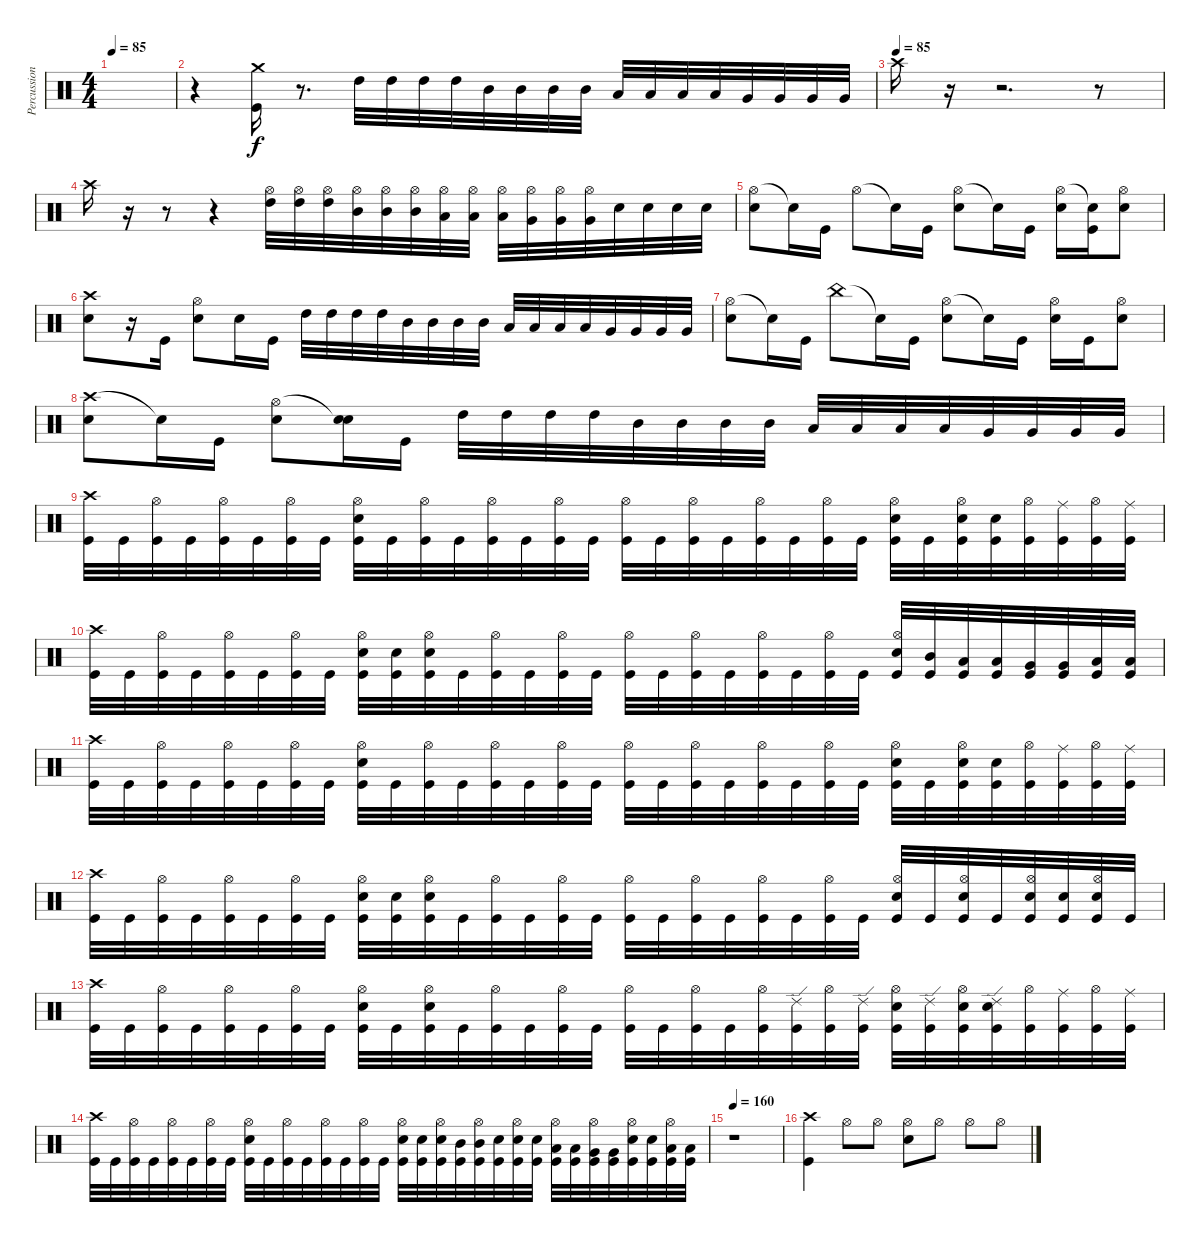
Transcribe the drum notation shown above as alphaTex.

\track ("Percussion" "Percussion") {instrument percussion}
\staff {score}
\articulation defaults
\ts (4 4)
\tempo 85
\clef neutral
\ks c
|
r.4 ("Crash medium (hit)" "Kick (hit)").16 r.8{d} "High Tom (hit)".32 "High Tom (hit)".32 "High Tom (hit)".32 "High Tom (hit)".32 "Mid Tom (hit)".32 "Mid Tom (hit)".32 "Mid Tom (hit)".32 "Mid Tom (hit)".32 "Low Tom (hit)".32 "Low Tom (hit)".32 "Low Tom (hit)".32 "Low Tom (hit)".32 "Very Low Tom (hit)".32 "Very Low Tom (hit)".32 "Very Low Tom (hit)".32 "Very Low Tom (hit)".32 |
\tempo (85)
"Crash high (hit)".16 r.16 r.2{d} r.8 |
"Crash high (hit)".16 r.16 r.8 r.4 ("Hi-Hat (open)" "High Tom (hit)").32 ("Hi-Hat (open)" "High Tom (hit)").32 ("Hi-Hat (open)" "High Tom (hit)").32 ("Hi-Hat (open)" "Mid Tom (hit)").32 ("Hi-Hat (open)" "Mid Tom (hit)").32 ("Hi-Hat (open)" "Mid Tom (hit)").32 ("Hi-Hat (open)" "Low Tom (hit)").32 ("Hi-Hat (open)" "Low Tom (hit)").32 ("Hi-Hat (open)" "Low Tom (hit)").32 ("Hi-Hat (open)" "Very Low Tom (hit)").32 ("Hi-Hat (open)" "Very Low Tom (hit)").32 ("Hi-Hat (open)" "Very Low Tom (hit)").32 "Electric Snare (hit)".32 "Electric Snare (hit)".32 "Electric Snare (hit)".32 "Electric Snare (hit)".32 |
("Hi-Hat (open)" "Electric Snare (hit)").8 "Snare (hit)"{t}.16 "Kick (hit)".16 "Hi-Hat (open)".8 "Snare (hit)"{t}.16 "Kick (hit)".16 ("Hi-Hat (open)" "Electric Snare (hit)").8 "Snare (hit)"{t}.16 "Kick (hit)".16 ("Hi-Hat (open)" "Electric Snare (hit)").16 ("Snare (hit)"{t} "Kick (hit)").16 ("Hi-Hat (open)" "Electric Snare (hit)").8 |
("Crash high (hit)" "Electric Snare (hit)").8 r.16 "Kick (hit)".16 ("Hi-Hat (open)" "Electric Snare (hit)").8 "Electric Snare (hit)".16 "Kick (hit)".16 "High Tom (hit)".32 "High Tom (hit)".32 "High Tom (hit)".32 "High Tom (hit)".32 "Mid Tom (hit)".32 "Mid Tom (hit)".32 "Mid Tom (hit)".32 "Mid Tom (hit)".32 "Low Tom (hit)".32 "Low Tom (hit)".32 "Low Tom (hit)".32 "Low Tom (hit)".32 "Very Low Tom (hit)".32 "Very Low Tom (hit)".32 "Very Low Tom (hit)".32 "Very Low Tom (hit)".32 |
("Hi-Hat (open)" "Electric Snare (hit)").8 "Snare (hit)"{t}.16 "Kick (hit)".16 "China (hit)".8 "Snare (hit)"{t}.16 "Kick (hit)".16 ("Hi-Hat (open)" "Electric Snare (hit)").8 "Snare (hit)"{t}.16 "Kick (hit)".16 ("Hi-Hat (open)" "Electric Snare (hit)").16 "Kick (hit)".16 ("Hi-Hat (open)" "Electric Snare (hit)").8 |
("Crash high (hit)" "Electric Snare (hit)").8 "Snare (hit)"{t}.16 "Kick (hit)".16 ("Hi-Hat (open)" "Electric Snare (hit)").8 ("Snare (hit)"{t} "Electric Snare (hit)").16 "Kick (hit)".16 "High Tom (hit)".32 "High Tom (hit)".32 "High Tom (hit)".32 "High Tom (hit)".32 "Mid Tom (hit)".32 "Mid Tom (hit)".32 "Mid Tom (hit)".32 "Mid Tom (hit)".32 "Low Tom (hit)".32 "Low Tom (hit)".32 "Low Tom (hit)".32 "Low Tom (hit)".32 "Very Low Tom (hit)".32 "Very Low Tom (hit)".32 "Very Low Tom (hit)".32 "Very Low Tom (hit)".32 |
("Crash high (hit)" "Kick (hit)").32 "Kick (hit)".32 ("Hi-Hat (open)" "Kick (hit)").32 "Kick (hit)".32 ("Hi-Hat (open)" "Kick (hit)").32 "Kick (hit)".32 ("Hi-Hat (open)" "Kick (hit)").32 "Kick (hit)".32 ("Hi-Hat (open)" "Electric Snare (hit)" "Kick (hit)").32 "Kick (hit)".32 ("Hi-Hat (open)" "Kick (hit)").32 "Kick (hit)".32 ("Hi-Hat (open)" "Kick (hit)").32 "Kick (hit)".32 ("Hi-Hat (open)" "Kick (hit)").32 "Kick (hit)".32 ("Hi-Hat (open)" "Kick (hit)").32 "Kick (hit)".32 ("Hi-Hat (open)" "Kick (hit)").32 "Kick (hit)".32 ("Hi-Hat (open)" "Kick (hit)").32 "Kick (hit)".32 ("Hi-Hat (open)" "Kick (hit)").32 "Kick (hit)".32 ("Hi-Hat (open)" "Electric Snare (hit)" "Kick (hit)").32 "Kick (hit)".32 ("Hi-Hat (open)" "Electric Snare (hit)" "Kick (hit)").32 ("Electric Snare (hit)" "Kick (hit)").32 ("Hi-Hat (open)" "Kick (hit)").32 ("Ride (middle)" "Kick (hit)").32 ("Hi-Hat (open)" "Kick (hit)").32 ("Ride (middle)" "Kick (hit)").32 |
("Crash high (hit)" "Kick (hit)").32 "Kick (hit)".32 ("Hi-Hat (open)" "Kick (hit)").32 "Kick (hit)".32 ("Hi-Hat (open)" "Kick (hit)").32 "Kick (hit)".32 ("Hi-Hat (open)" "Kick (hit)").32 "Kick (hit)".32 ("Hi-Hat (open)" "Electric Snare (hit)" "Kick (hit)").32 ("Electric Snare (hit)" "Kick (hit)").32 ("Hi-Hat (open)" "Electric Snare (hit)" "Kick (hit)").32 "Kick (hit)".32 ("Hi-Hat (open)" "Kick (hit)").32 "Kick (hit)".32 ("Hi-Hat (open)" "Kick (hit)").32 "Kick (hit)".32 ("Hi-Hat (open)" "Kick (hit)").32 "Kick (hit)".32 ("Hi-Hat (open)" "Kick (hit)").32 "Kick (hit)".32 ("Hi-Hat (open)" "Kick (hit)").32 "Kick (hit)".32 ("Hi-Hat (open)" "Kick (hit)").32 "Kick (hit)".32 ("Hi-Hat (open)" "Electric Snare (hit)" "Kick (hit)").32 ("Mid Tom (hit)" "Kick (hit)").32 ("Low Tom (hit)" "Kick (hit)").32 ("Low Tom (hit)" "Kick (hit)").32 ("Very Low Tom (hit)" "Kick (hit)").32 ("Very Low Tom (hit)" "Kick (hit)").32 ("Low Floor Tom (hit)" "Kick (hit)").32 ("Low Floor Tom (hit)" "Kick (hit)").32 |
("Crash high (hit)" "Kick (hit)").32 "Kick (hit)".32 ("Hi-Hat (open)" "Kick (hit)").32 "Kick (hit)".32 ("Hi-Hat (open)" "Kick (hit)").32 "Kick (hit)".32 ("Hi-Hat (open)" "Kick (hit)").32 "Kick (hit)".32 ("Hi-Hat (open)" "Electric Snare (hit)" "Kick (hit)").32 "Kick (hit)".32 ("Hi-Hat (open)" "Kick (hit)").32 "Kick (hit)".32 ("Hi-Hat (open)" "Kick (hit)").32 "Kick (hit)".32 ("Hi-Hat (open)" "Kick (hit)").32 "Kick (hit)".32 ("Hi-Hat (open)" "Kick (hit)").32 "Kick (hit)".32 ("Hi-Hat (open)" "Kick (hit)").32 "Kick (hit)".32 ("Hi-Hat (open)" "Kick (hit)").32 "Kick (hit)".32 ("Hi-Hat (open)" "Kick (hit)").32 "Kick (hit)".32 ("Hi-Hat (open)" "Electric Snare (hit)" "Kick (hit)").32 "Kick (hit)".32 ("Hi-Hat (open)" "Electric Snare (hit)" "Kick (hit)").32 ("Electric Snare (hit)" "Kick (hit)").32 ("Hi-Hat (open)" "Kick (hit)").32 ("Ride (middle)" "Kick (hit)").32 ("Hi-Hat (open)" "Kick (hit)").32 ("Ride (middle)" "Kick (hit)").32 |
("Crash high (hit)" "Kick (hit)").32 "Kick (hit)".32 ("Hi-Hat (open)" "Kick (hit)").32 "Kick (hit)".32 ("Hi-Hat (open)" "Kick (hit)").32 "Kick (hit)".32 ("Hi-Hat (open)" "Kick (hit)").32 "Kick (hit)".32 ("Hi-Hat (open)" "Electric Snare (hit)" "Kick (hit)").32 ("Electric Snare (hit)" "Kick (hit)").32 ("Hi-Hat (open)" "Electric Snare (hit)" "Kick (hit)").32 "Kick (hit)".32 ("Hi-Hat (open)" "Kick (hit)").32 "Kick (hit)".32 ("Hi-Hat (open)" "Kick (hit)").32 "Kick (hit)".32 ("Hi-Hat (open)" "Kick (hit)").32 "Kick (hit)".32 ("Hi-Hat (open)" "Kick (hit)").32 "Kick (hit)".32 ("Hi-Hat (open)" "Kick (hit)").32 "Kick (hit)".32 ("Hi-Hat (open)" "Kick (hit)").32 "Kick (hit)".32 ("Hi-Hat (open)" "Electric Snare (hit)" "Kick (hit)").32 "Kick (hit)".32 ("Hi-Hat (open)" "Electric Snare (hit)" "Kick (hit)").32 "Kick (hit)".32 ("Hi-Hat (open)" "Electric Snare (hit)" "Kick (hit)").32 ("Electric Snare (hit)" "Kick (hit)").32 ("Hi-Hat (open)" "Electric Snare (hit)" "Kick (hit)").32 "Kick (hit)".32 |
("Crash high (hit)" "Kick (hit)").32 "Kick (hit)".32 ("Hi-Hat (open)" "Kick (hit)").32 "Kick (hit)".32 ("Hi-Hat (open)" "Kick (hit)").32 "Kick (hit)".32 ("Hi-Hat (open)" "Kick (hit)").32 "Kick (hit)".32 ("Hi-Hat (open)" "Electric Snare (hit)" "Kick (hit)").32 "Kick (hit)".32 ("Hi-Hat (open)" "Electric Snare (hit)" "Kick (hit)").32 "Kick (hit)".32 ("Hi-Hat (open)" "Kick (hit)").32 "Kick (hit)".32 ("Hi-Hat (open)" "Kick (hit)").32 "Kick (hit)".32 ("Hi-Hat (open)" "Kick (hit)").32 "Kick (hit)".32 ("Hi-Hat (open)" "Kick (hit)").32 "Kick (hit)".32 ("Hi-Hat (open)" "Kick (hit)").32 ("Ride (edge) 2" "Kick (hit)").32 ("Hi-Hat (open)" "Kick (hit)").32 ("Ride (edge) 2" "Kick (hit)").32 ("Hi-Hat (open)" "Electric Snare (hit)" "Kick (hit)").32 ("Ride (edge) 2" "Kick (hit)").32 ("Hi-Hat (open)" "Electric Snare (hit)" "Kick (hit)").32 ("Ride (edge) 2" "Electric Snare (hit)" "Kick (hit)").32 ("Hi-Hat (open)" "Kick (hit)").32 ("Ride (middle)" "Kick (hit)").32 ("Hi-Hat (open)" "Kick (hit)").32 ("Ride (middle)" "Kick (hit)").32 |
("Crash high (hit)" "Kick (hit)").32 "Kick (hit)".32 ("Hi-Hat (open)" "Kick (hit)").32 "Kick (hit)".32 ("Hi-Hat (open)" "Kick (hit)").32 "Kick (hit)".32 ("Hi-Hat (open)" "Kick (hit)").32 "Kick (hit)".32 ("Hi-Hat (open)" "Electric Snare (hit)" "Kick (hit)").32 "Kick (hit)".32 ("Hi-Hat (open)" "Kick (hit)").32 "Kick (hit)".32 ("Hi-Hat (open)" "Kick (hit)").32 "Kick (hit)".32 ("Hi-Hat (open)" "Kick (hit)").32 "Kick (hit)".32 ("Hi-Hat (open)" "Electric Snare (hit)" "Kick (hit)").32 ("Electric Snare (hit)" "Kick (hit)").32 ("Hi-Hat (open)" "Electric Snare (hit)" "Kick (hit)").32 ("Mid Tom (hit)" "Kick (hit)").32 ("Hi-Hat (open)" "Mid Tom (hit)" "Kick (hit)").32 ("Electric Snare (hit)" "Kick (hit)").32 ("Hi-Hat (open)" "Electric Snare (hit)" "Kick (hit)").32 ("Electric Snare (hit)" "Kick (hit)").32 ("Hi-Hat (open)" "Low Tom (hit)" "Kick (hit)").32 ("Low Tom (hit)" "Kick (hit)").32 ("Hi-Hat (open)" "Very Low Tom (hit)" "Kick (hit)").32 ("Very Low Tom (hit)" "Kick (hit)").32 ("Hi-Hat (open)" "Electric Snare (hit)" "Kick (hit)").32 ("Electric Snare (hit)" "Kick (hit)").32 ("Hi-Hat (open)" "Low Floor Tom (hit)" "Kick (hit)").32 ("Low Floor Tom (hit)" "Kick (hit)").32 |
\tempo 175
\tempo 160
r.1 |
("Crash high (hit)" "Kick (hit)").4 "Hi-Hat (open)".8 "Hi-Hat (open)".8 ("Hi-Hat (open)" "Electric Snare (hit)").8 "Hi-Hat (open)".8 "Hi-Hat (open)".8 "Hi-Hat (open)".8
